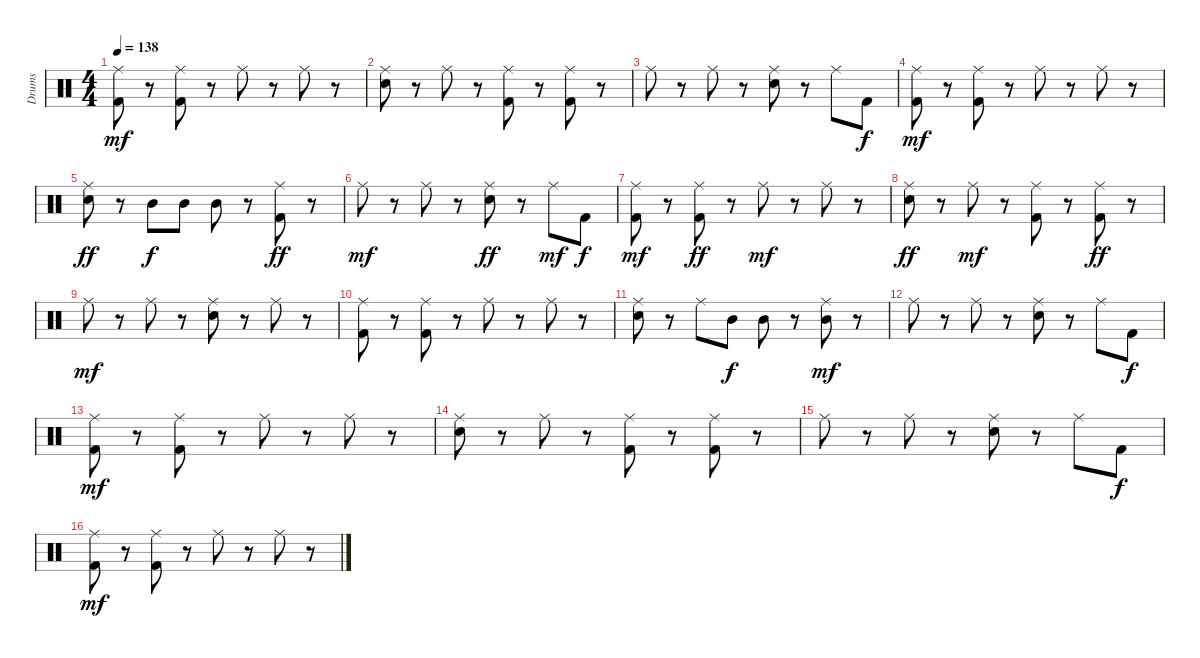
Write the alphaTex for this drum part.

\track ("Drums" "Drums") {instrument percussion}
\staff {score}
\articulation defaults
\ts (4 4)
\tempo 138
\clef neutral
\ks c
("Ride (middle)" "Kick (hit) 2").8{dy mf} r.8 ("Ride (middle)" "Kick (hit) 2").8 r.8 "Ride (middle)".8 r.8 "Ride (middle)".8 r.8 |
("Ride (middle)" "Snare (hit) 2").8 r.8 "Ride (middle)".8 r.8 ("Ride (middle)" "Kick (hit) 2").8 r.8 ("Ride (middle)" "Kick (hit) 2").8 r.8 |
"Ride (middle)".8 r.8 "Ride (middle)".8 r.8 ("Ride (middle)" "Snare (hit) 2").8 r.8 "Ride (middle)".8 "Kick (hit) 2".8{dy f} |
("Ride (middle)" "Kick (hit) 2").8{dy mf} r.8 ("Ride (middle)" "Kick (hit) 2").8 r.8 "Ride (middle)".8 r.8 "Ride (middle)".8 r.8 |
("Ride (middle)" "Snare (hit) 2").8{dy ff} r.8 "Mid Tom (hit)".8{dy f} "Mid Tom (hit)".8 "Mid Tom (hit)".8 r.8 ("Ride (middle)" "Kick (hit) 2").8{dy ff} r.8 |
"Ride (middle)".8{dy mf} r.8 "Ride (middle)".8 r.8 ("Ride (middle)" "Snare (hit) 2").8{dy ff} r.8 "Ride (middle)".8{dy mf} "Kick (hit) 2".8{dy f} |
("Ride (middle)" "Kick (hit) 2").8{dy mf} r.8 ("Ride (middle)" "Kick (hit) 2").8{dy ff} r.8 "Ride (middle)".8{dy mf} r.8 "Ride (middle)".8 r.8 |
("Ride (middle)" "Snare (hit) 2").8{dy ff} r.8 "Ride (middle)".8{dy mf} r.8 ("Ride (middle)" "Kick (hit) 2").8 r.8 ("Ride (middle)" "Kick (hit) 2").8{dy ff} r.8 |
"Ride (middle)".8{dy mf} r.8 "Ride (middle)".8 r.8 ("Ride (middle)" "Snare (hit) 2").8 r.8 "Ride (middle)".8 r.8 |
("Ride (middle)" "Kick (hit) 2").8 r.8 ("Ride (middle)" "Kick (hit) 2").8 r.8 "Ride (middle)".8 r.8 "Ride (middle)".8 r.8 |
("Ride (middle)" "Snare (hit) 2").8 r.8 "Ride (middle)".8 "Mid Tom (hit)".8{dy f} "Mid Tom (hit)".8 r.8 ("Ride (middle)" "Mid Tom (hit)").8{dy mf} r.8 |
"Ride (middle)".8 r.8 "Ride (middle)".8 r.8 ("Ride (middle)" "Snare (hit) 2").8 r.8 "Ride (middle)".8 "Kick (hit) 2".8{dy f} |
("Ride (middle)" "Kick (hit) 2").8{dy mf} r.8 ("Ride (middle)" "Kick (hit) 2").8 r.8 "Ride (middle)".8 r.8 "Ride (middle)".8 r.8 |
("Ride (middle)" "Snare (hit) 2").8 r.8 "Ride (middle)".8 r.8 ("Ride (middle)" "Kick (hit) 2").8 r.8 ("Ride (middle)" "Kick (hit) 2").8 r.8 |
"Ride (middle)".8 r.8 "Ride (middle)".8 r.8 ("Ride (middle)" "Snare (hit) 2").8 r.8 "Ride (middle)".8 "Kick (hit) 2".8{dy f} |
("Ride (middle)" "Kick (hit) 2").8{dy mf} r.8 ("Ride (middle)" "Kick (hit) 2").8 r.8 "Ride (middle)".8 r.8 "Ride (middle)".8 r.8
